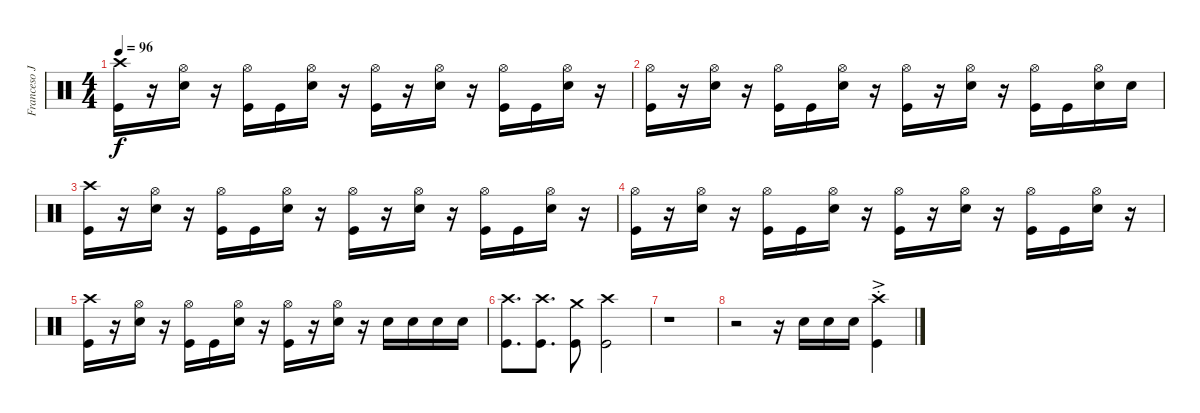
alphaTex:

\track ("Franceso Jovino" "Franceso J") {instrument percussion}
\staff {score}
\articulation defaults
\ts (4 4)
\tempo 96
\clef neutral
\ks c
("Kick (hit)" "Crash high (hit)").16{dy f} r.16 ("Snare (hit) 2" "Hi-Hat (open)").16 r.16 ("Hi-Hat (open)" "Kick (hit)").16 "Kick (hit)".16 ("Snare (hit) 2" "Hi-Hat (open)").16 r.16 ("Kick (hit)" "Hi-Hat (open)").16 r.16 ("Snare (hit) 2" "Hi-Hat (open)").16 r.16 ("Hi-Hat (open)" "Kick (hit)").16 "Kick (hit)".16 ("Snare (hit) 2" "Hi-Hat (open)").16 r.16 |
("Kick (hit)" "Hi-Hat (open)").16 r.16 ("Snare (hit) 2" "Hi-Hat (open)").16 r.16 ("Hi-Hat (open)" "Kick (hit)").16 "Kick (hit)".16 ("Snare (hit) 2" "Hi-Hat (open)").16 r.16 ("Kick (hit)" "Hi-Hat (open)").16 r.16 ("Snare (hit) 2" "Hi-Hat (open)").16 r.16 ("Hi-Hat (open)" "Kick (hit)").16 "Kick (hit)".16 ("Snare (hit) 2" "Hi-Hat (open)").16 "Snare (hit) 2".16 |
("Kick (hit)" "Crash high (hit)").16 r.16 ("Snare (hit) 2" "Hi-Hat (open)").16 r.16 ("Hi-Hat (open)" "Kick (hit)").16 "Kick (hit)".16 ("Snare (hit) 2" "Hi-Hat (open)").16 r.16 ("Kick (hit)" "Hi-Hat (open)").16 r.16 ("Snare (hit) 2" "Hi-Hat (open)").16 r.16 ("Hi-Hat (open)" "Kick (hit)").16 "Kick (hit)".16 ("Snare (hit) 2" "Hi-Hat (open)").16 r.16 |
("Kick (hit)" "Hi-Hat (open)").16 r.16 ("Snare (hit) 2" "Hi-Hat (open)").16 r.16 ("Hi-Hat (open)" "Kick (hit)").16 "Kick (hit)".16 ("Snare (hit) 2" "Hi-Hat (open)").16 r.16 ("Kick (hit)" "Hi-Hat (open)").16 r.16 ("Snare (hit) 2" "Hi-Hat (open)").16 r.16 ("Hi-Hat (open)" "Kick (hit)").16 "Kick (hit)".16 ("Snare (hit) 2" "Hi-Hat (open)").16 r.16 |
("Kick (hit)" "Crash high (hit)").16 r.16 ("Snare (hit) 2" "Hi-Hat (open)").16 r.16 ("Hi-Hat (open)" "Kick (hit)").16 "Kick (hit)".16 ("Snare (hit) 2" "Hi-Hat (open)").16 r.16 ("Kick (hit)" "Hi-Hat (open)").16 r.16 ("Snare (hit) 2" "Hi-Hat (open)").16 r.16 "Snare (hit) 2".16 "Snare (hit) 2".16 "Snare (hit) 2".16 "Snare (hit) 2".16 |
("Kick (hit)" "Crash high (hit)").8{d} ("Kick (hit)" "Crash high (hit)").8{d} ("Kick (hit)" "Crash medium (hit)").8 ("Kick (hit)" "Crash high (hit)").2 |
r.1 |
r.2 r.16 "Snare (hit) 2".16 "Snare (hit) 2".16 "Snare (hit) 2".16 ("Kick (hit)"{ac st} "Crash high (hit)"{ac st}).4
